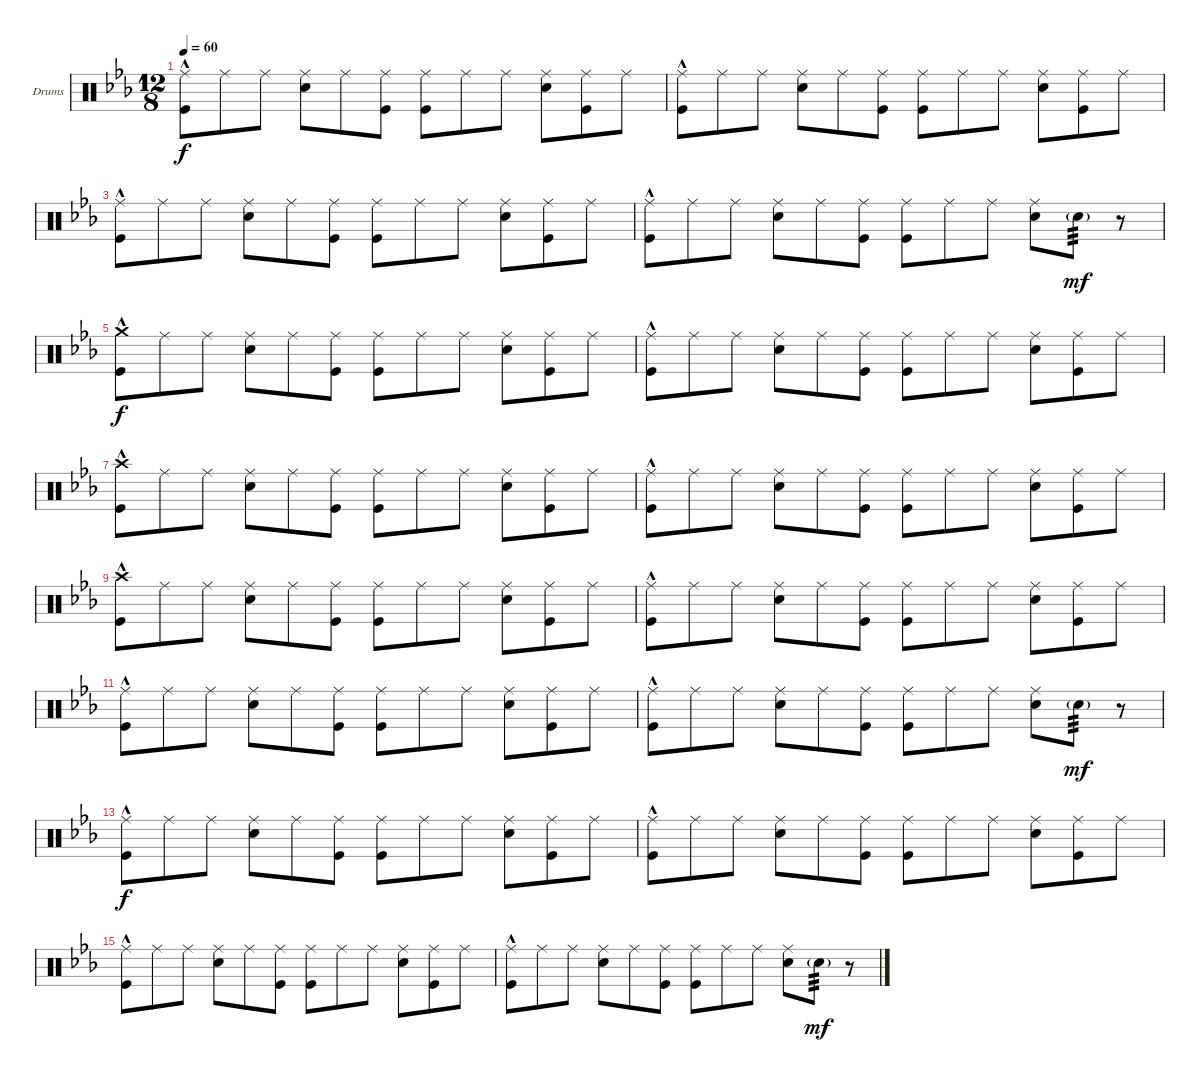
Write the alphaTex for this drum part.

\bracketExtendMode nobrackets
\firstSystemTrackNameOrientation horizontal
\otherSystemsTrackNameOrientation horizontal
\defaultBarNumberDisplay FirstOfSystem
\track ("Drumkit" "Drums") {instrument percussion}
\staff {score}
\articulation defaults
\ts (12 8)
\tempo 60
\clef neutral
\scale
0.333333
\ks cminor
("Ride (middle)" "Kick (hit)"{hac}).8{dy f} "Ride (middle)".8 "Ride (middle)".8 ("Ride (middle)" "Snare (hit) 2").8 "Ride (middle)".8 ("Ride (middle)" "Kick (hit)").8 ("Ride (middle)" "Kick (hit)").8 "Ride (middle)".8 "Ride (middle)".8 ("Ride (middle)" "Snare (hit) 2").8 ("Ride (middle)" "Kick (hit)").8 "Ride (middle)".8 |
\scale
0.333333 ("Ride (middle)" "Kick (hit)"{hac}).8 "Ride (middle)".8 "Ride (middle)".8 ("Ride (middle)" "Snare (hit) 2").8 "Ride (middle)".8 ("Ride (middle)" "Kick (hit)").8 ("Ride (middle)" "Kick (hit)").8 "Ride (middle)".8 "Ride (middle)".8 ("Ride (middle)" "Snare (hit) 2").8 ("Ride (middle)" "Kick (hit)").8 "Ride (middle)".8 |
\scale
0.333333 ("Ride (middle)" "Kick (hit)"{hac}).8 "Ride (middle)".8 "Ride (middle)".8 ("Ride (middle)" "Snare (hit) 2").8 "Ride (middle)".8 ("Ride (middle)" "Kick (hit)").8 ("Ride (middle)" "Kick (hit)").8 "Ride (middle)".8 "Ride (middle)".8 ("Ride (middle)" "Snare (hit) 2").8 ("Ride (middle)" "Kick (hit)").8 "Ride (middle)".8 |
\scale
0.333333 ("Ride (middle)" "Kick (hit)"{hac}).8 "Ride (middle)".8 "Ride (middle)".8 ("Ride (middle)" "Snare (hit) 2").8 "Ride (middle)".8 ("Ride (middle)" "Kick (hit)").8 ("Ride (middle)" "Kick (hit)").8 "Ride (middle)".8 "Ride (middle)".8 ("Ride (middle)" "Snare (hit) 2").8 "Snare (hit) 2"{g}.8{tp 3 dy mf} r.8 |
\scale
0.333333 ("Crash medium (hit)" "Kick (hit)"{hac}).8{dy f} "Ride (middle)".8 "Ride (middle)".8 ("Ride (middle)" "Snare (hit) 2").8 "Ride (middle)".8 ("Ride (middle)" "Kick (hit)").8 ("Ride (middle)" "Kick (hit)").8 "Ride (middle)".8 "Ride (middle)".8 ("Ride (middle)" "Snare (hit) 2").8 ("Ride (middle)" "Kick (hit)").8 "Ride (middle)".8 |
\scale
0.333333 ("Ride (middle)" "Kick (hit)"{hac}).8 "Ride (middle)".8 "Ride (middle)".8 ("Ride (middle)" "Snare (hit) 2").8 "Ride (middle)".8 ("Ride (middle)" "Kick (hit)").8 ("Ride (middle)" "Kick (hit)").8 "Ride (middle)".8 "Ride (middle)".8 ("Ride (middle)" "Snare (hit) 2").8 ("Ride (middle)" "Kick (hit)").8 "Ride (middle)".8 |
\scale
0.333333 ("Crash high (hit)" "Kick (hit)"{hac}).8 "Ride (middle)".8 "Ride (middle)".8 ("Ride (middle)" "Snare (hit) 2").8 "Ride (middle)".8 ("Ride (middle)" "Kick (hit)").8 ("Ride (middle)" "Kick (hit)").8 "Ride (middle)".8 "Ride (middle)".8 ("Ride (middle)" "Snare (hit) 2").8 ("Ride (middle)" "Kick (hit)").8 "Ride (middle)".8 |
\scale
0.333333 ("Ride (middle)" "Kick (hit)"{hac}).8 "Ride (middle)".8 "Ride (middle)".8 ("Ride (middle)" "Snare (hit) 2").8 "Ride (middle)".8 ("Ride (middle)" "Kick (hit)").8 ("Ride (middle)" "Kick (hit)").8 "Ride (middle)".8 "Ride (middle)".8 ("Ride (middle)" "Snare (hit) 2").8 ("Ride (middle)" "Kick (hit)").8 "Ride (middle)".8 |
\scale
0.333333 ("Crash high (hit)" "Kick (hit)"{hac}).8 "Ride (middle)".8 "Ride (middle)".8 ("Ride (middle)" "Snare (hit) 2").8 "Ride (middle)".8 ("Ride (middle)" "Kick (hit)").8 ("Ride (middle)" "Kick (hit)").8 "Ride (middle)".8 "Ride (middle)".8 ("Ride (middle)" "Snare (hit) 2").8 ("Ride (middle)" "Kick (hit)").8 "Ride (middle)".8 |
\scale
0.333333 ("Ride (middle)" "Kick (hit)"{hac}).8 "Ride (middle)".8 "Ride (middle)".8 ("Ride (middle)" "Snare (hit) 2").8 "Ride (middle)".8 ("Ride (middle)" "Kick (hit)").8 ("Ride (middle)" "Kick (hit)").8 "Ride (middle)".8 "Ride (middle)".8 ("Ride (middle)" "Snare (hit) 2").8 ("Ride (middle)" "Kick (hit)").8 "Ride (middle)".8 |
\scale
0.333333 ("Ride (middle)" "Kick (hit)"{hac}).8 "Ride (middle)".8 "Ride (middle)".8 ("Ride (middle)" "Snare (hit) 2").8 "Ride (middle)".8 ("Ride (middle)" "Kick (hit)").8 ("Ride (middle)" "Kick (hit)").8 "Ride (middle)".8 "Ride (middle)".8 ("Ride (middle)" "Snare (hit) 2").8 ("Ride (middle)" "Kick (hit)").8 "Ride (middle)".8 |
\scale
0.333333 ("Ride (middle)" "Kick (hit)"{hac}).8 "Ride (middle)".8 "Ride (middle)".8 ("Ride (middle)" "Snare (hit) 2").8 "Ride (middle)".8 ("Ride (middle)" "Kick (hit)").8 ("Ride (middle)" "Kick (hit)").8 "Ride (middle)".8 "Ride (middle)".8 ("Ride (middle)" "Snare (hit) 2").8 "Snare (hit) 2"{g}.8{tp 3 dy mf} r.8 |
\scale
0.333333 ("Ride (middle)" "Kick (hit)"{hac}).8{dy f} "Ride (middle)".8 "Ride (middle)".8 ("Ride (middle)" "Snare (hit) 2").8 "Ride (middle)".8 ("Ride (middle)" "Kick (hit)").8 ("Ride (middle)" "Kick (hit)").8 "Ride (middle)".8 "Ride (middle)".8 ("Ride (middle)" "Snare (hit) 2").8 ("Ride (middle)" "Kick (hit)").8 "Ride (middle)".8 |
\scale
0.333333 ("Ride (middle)" "Kick (hit)"{hac}).8 "Ride (middle)".8 "Ride (middle)".8 ("Ride (middle)" "Snare (hit) 2").8 "Ride (middle)".8 ("Ride (middle)" "Kick (hit)").8 ("Ride (middle)" "Kick (hit)").8 "Ride (middle)".8 "Ride (middle)".8 ("Ride (middle)" "Snare (hit) 2").8 ("Ride (middle)" "Kick (hit)").8 "Ride (middle)".8 |
\scale
0.333333 ("Ride (middle)" "Kick (hit)"{hac}).8 "Ride (middle)".8 "Ride (middle)".8 ("Ride (middle)" "Snare (hit) 2").8 "Ride (middle)".8 ("Ride (middle)" "Kick (hit)").8 ("Ride (middle)" "Kick (hit)").8 "Ride (middle)".8 "Ride (middle)".8 ("Ride (middle)" "Snare (hit) 2").8 ("Ride (middle)" "Kick (hit)").8 "Ride (middle)".8 |
\scale
0.333333 ("Ride (middle)" "Kick (hit)"{hac}).8 "Ride (middle)".8 "Ride (middle)".8 ("Ride (middle)" "Snare (hit) 2").8 "Ride (middle)".8 ("Ride (middle)" "Kick (hit)").8 ("Ride (middle)" "Kick (hit)").8 "Ride (middle)".8 "Ride (middle)".8 ("Ride (middle)" "Snare (hit) 2").8 "Snare (hit) 2"{g}.8{tp 3 dy mf} r.8
